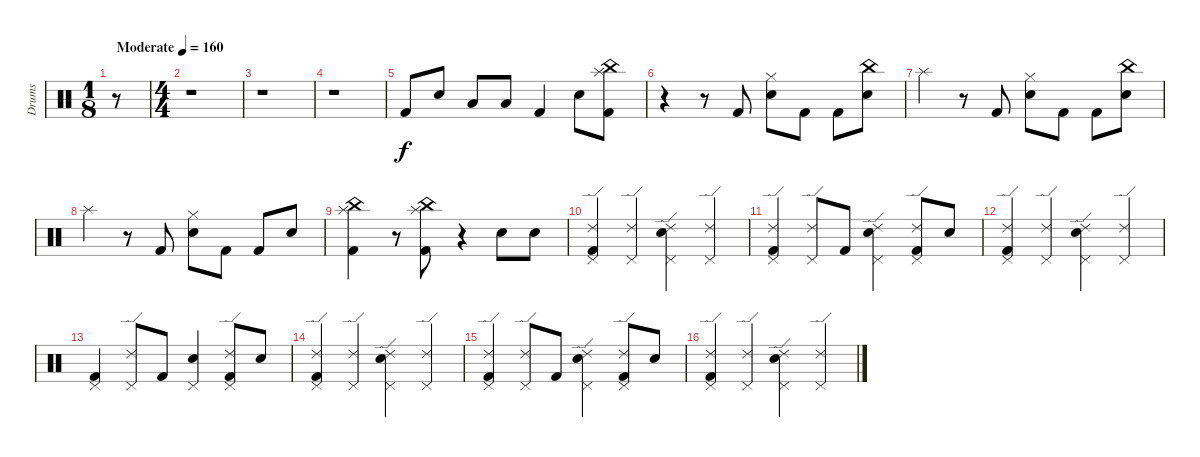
\track ("Drums" "Drums") {instrument percussion}
\staff {score}
\articulation defaults
\ts (1 8)
\tempo (160 "Moderate")
\clef neutral
\ks c
r.8{dy f} |
\ts (4 4)
r.1 |
r.1 |
r.1 |
"Kick (hit) 2".8 "Snare (hit) 2".8 "Low Tom (hit)".8 "Low Tom (hit)".8 "Kick (hit) 2".4 "Snare (hit) 2".8 ("Splash (hit)" "Kick (hit) 2" "China (hit)").8 |
r.4 r.8 "Kick (hit) 2".8 ("Hi-Hat (closed)" "Snare (hit) 2").8 "Kick (hit) 2".8 "Kick (hit) 2".8 ("Snare (hit) 2" "China (hit)").8 |
"Splash (hit)".4 r.8 "Kick (hit) 2".8 ("Hi-Hat (closed)" "Snare (hit) 2").8 "Kick (hit) 2".8 "Kick (hit) 2".8 ("Snare (hit) 2" "China (hit)").8 |
"Splash (hit)".4 r.8 "Kick (hit) 2".8 ("Hi-Hat (closed)" "Snare (hit) 2").8 "Kick (hit) 2".8 "Kick (hit) 2".8 "Snare (hit) 2".8 |
("Splash (hit)" "Kick (hit) 2" "China (hit)").4 r.8 ("Splash (hit)" "Kick (hit) 2" "China (hit)").8 r.4 "Snare (hit) 2".8 "Snare (hit) 2".8 |
("Pedal Hi-Hat (hit)" "Kick (hit) 2" "Ride (edge) 2").4 ("Pedal Hi-Hat (hit)" "Ride (edge) 2").4 ("Pedal Hi-Hat (hit)" "Snare (hit) 2" "Ride (edge) 2").4 ("Pedal Hi-Hat (hit)" "Ride (edge) 2").4 |
("Pedal Hi-Hat (hit)" "Kick (hit) 2" "Ride (edge) 2").4 ("Pedal Hi-Hat (hit)" "Ride (edge) 2").8 "Kick (hit) 2".8 ("Pedal Hi-Hat (hit)" "Snare (hit) 2" "Ride (edge) 2").4 ("Pedal Hi-Hat (hit)" "Kick (hit) 2" "Ride (edge) 2").8 "Snare (hit) 2".8 |
("Pedal Hi-Hat (hit)" "Kick (hit) 2" "Ride (edge) 2").4 ("Pedal Hi-Hat (hit)" "Ride (edge) 2").4 ("Pedal Hi-Hat (hit)" "Snare (hit) 2" "Ride (edge) 2").4 ("Pedal Hi-Hat (hit)" "Ride (edge) 2").4 |
("Pedal Hi-Hat (hit)" "Kick (hit) 2").4 ("Pedal Hi-Hat (hit)" "Ride (edge) 2").8 "Kick (hit) 2".8 ("Pedal Hi-Hat (hit)" "Snare (hit) 2").4 ("Pedal Hi-Hat (hit)" "Kick (hit) 2" "Ride (edge) 2").8 "Snare (hit) 2".8 |
("Pedal Hi-Hat (hit)" "Kick (hit) 2" "Ride (edge) 2").4 ("Pedal Hi-Hat (hit)" "Ride (edge) 2").4 ("Pedal Hi-Hat (hit)" "Snare (hit) 2" "Ride (edge) 2").4 ("Pedal Hi-Hat (hit)" "Ride (edge) 2").4 |
("Pedal Hi-Hat (hit)" "Kick (hit) 2" "Ride (edge) 2").4 ("Pedal Hi-Hat (hit)" "Ride (edge) 2").8 "Kick (hit) 2".8 ("Pedal Hi-Hat (hit)" "Snare (hit) 2" "Ride (edge) 2").4 ("Pedal Hi-Hat (hit)" "Kick (hit) 2" "Ride (edge) 2").8 "Snare (hit) 2".8 |
("Pedal Hi-Hat (hit)" "Kick (hit) 2" "Ride (edge) 2").4 ("Pedal Hi-Hat (hit)" "Ride (edge) 2").4 ("Pedal Hi-Hat (hit)" "Snare (hit) 2" "Ride (edge) 2").4 ("Pedal Hi-Hat (hit)" "Ride (edge) 2").4
